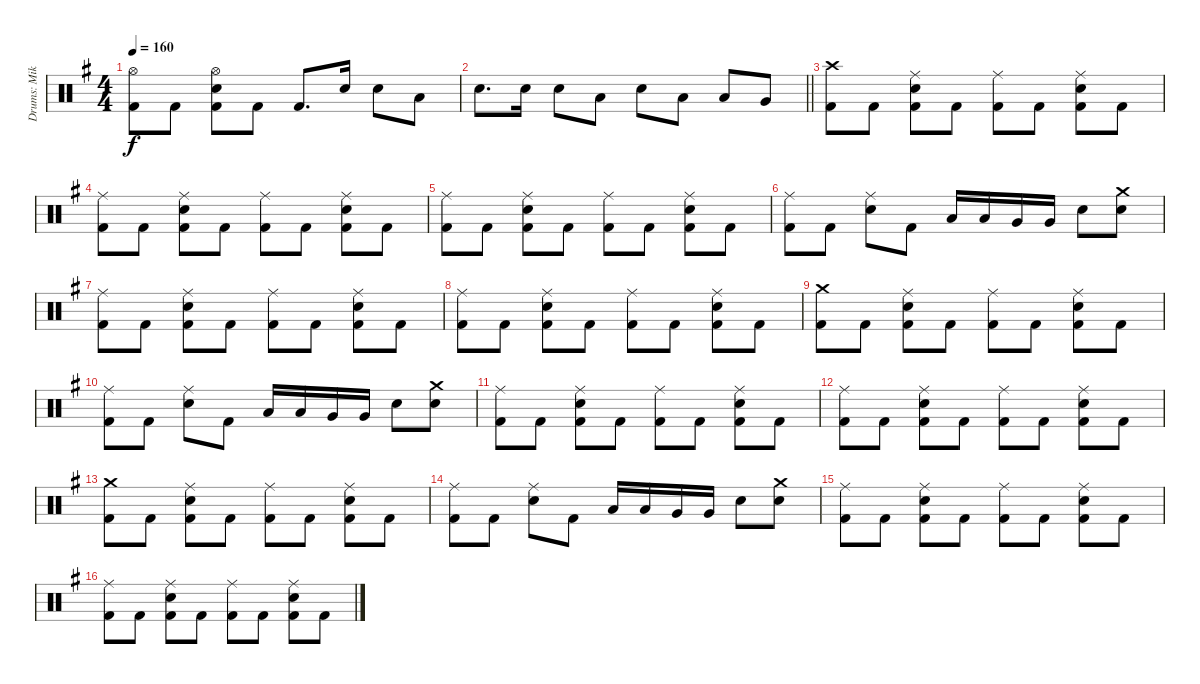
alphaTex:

\track ("Drums: Mikko Korsbäck" "Drums: Mik") {instrument percussion}
\staff {score}
\articulation defaults
\ts (4 4)
\tempo 160
\clef neutral
\ks eminor
("Hi-Hat (open)" "Kick (hit) 2").8{dy f} "Kick (hit) 2".8 ("Hi-Hat (open)" "Electric Snare (hit)" "Kick (hit) 2").8 "Kick (hit) 2".8 "Kick (hit) 2".8{d} "Electric Snare (hit)".16 "Electric Snare (hit)".8 "Low Tom (hit)".8 |
\barLineRight lightlight "Electric Snare (hit)".8{d} "Electric Snare (hit)".16 "Electric Snare (hit)".8 "Low Tom (hit)".8 "Electric Snare (hit)".8 "Low Tom (hit)".8 "Low Tom (hit)".8 "Very Low Tom (hit)".8
|
("Crash high (hit)" "Kick (hit) 2").8 "Kick (hit) 2".8 ("Ride (middle)" "Electric Snare (hit)" "Kick (hit) 2").8 "Kick (hit) 2".8 ("Ride (middle)" "Kick (hit) 2").8 "Kick (hit) 2".8 ("Ride (middle)" "Electric Snare (hit)" "Kick (hit) 2").8 "Kick (hit) 2".8 |
("Ride (middle)" "Kick (hit) 2").8 "Kick (hit) 2".8 ("Ride (middle)" "Electric Snare (hit)" "Kick (hit) 2").8 "Kick (hit) 2".8 ("Ride (middle)" "Kick (hit) 2").8 "Kick (hit) 2".8 ("Ride (middle)" "Electric Snare (hit)" "Kick (hit) 2").8 "Kick (hit) 2".8 |
("Ride (middle)" "Kick (hit) 2").8 "Kick (hit) 2".8 ("Ride (middle)" "Electric Snare (hit)" "Kick (hit) 2").8 "Kick (hit) 2".8 ("Ride (middle)" "Kick (hit) 2").8 "Kick (hit) 2".8 ("Ride (middle)" "Electric Snare (hit)" "Kick (hit) 2").8 "Kick (hit) 2".8 |
("Ride (middle)" "Kick (hit) 2").8 "Kick (hit) 2".8 ("Ride (middle)" "Electric Snare (hit)").8 "Kick (hit) 2".8 "Low Tom (hit)".16 "Low Tom (hit)".16 "Very Low Tom (hit)".16 "Very Low Tom (hit)".16 "Electric Snare (hit)".8 ("Crash medium (hit)" "Electric Snare (hit)").8 |
("Ride (middle)" "Kick (hit) 2").8 "Kick (hit) 2".8 ("Ride (middle)" "Electric Snare (hit)" "Kick (hit) 2").8 "Kick (hit) 2".8 ("Ride (middle)" "Kick (hit) 2").8 "Kick (hit) 2".8 ("Ride (middle)" "Electric Snare (hit)" "Kick (hit) 2").8 "Kick (hit) 2".8 |
("Ride (middle)" "Kick (hit) 2").8 "Kick (hit) 2".8 ("Ride (middle)" "Electric Snare (hit)" "Kick (hit) 2").8 "Kick (hit) 2".8 ("Ride (middle)" "Kick (hit) 2").8 "Kick (hit) 2".8 ("Ride (middle)" "Electric Snare (hit)" "Kick (hit) 2").8 "Kick (hit) 2".8 |
("Crash medium (hit)" "Kick (hit) 2").8 "Kick (hit) 2".8 ("Ride (middle)" "Electric Snare (hit)" "Kick (hit) 2").8 "Kick (hit) 2".8 ("Ride (middle)" "Kick (hit) 2").8 "Kick (hit) 2".8 ("Ride (middle)" "Electric Snare (hit)" "Kick (hit) 2").8 "Kick (hit) 2".8 |
("Ride (middle)" "Kick (hit) 2").8 "Kick (hit) 2".8 ("Ride (middle)" "Electric Snare (hit)").8 "Kick (hit) 2".8 "Low Tom (hit)".16 "Low Tom (hit)".16 "Very Low Tom (hit)".16 "Very Low Tom (hit)".16 "Electric Snare (hit)".8 ("Crash medium (hit)" "Electric Snare (hit)").8 |
("Ride (middle)" "Kick (hit) 2").8 "Kick (hit) 2".8 ("Ride (middle)" "Electric Snare (hit)" "Kick (hit) 2").8 "Kick (hit) 2".8 ("Ride (middle)" "Kick (hit) 2").8 "Kick (hit) 2".8 ("Ride (middle)" "Electric Snare (hit)" "Kick (hit) 2").8 "Kick (hit) 2".8 |
("Ride (middle)" "Kick (hit) 2").8 "Kick (hit) 2".8 ("Ride (middle)" "Electric Snare (hit)" "Kick (hit) 2").8 "Kick (hit) 2".8 ("Ride (middle)" "Kick (hit) 2").8 "Kick (hit) 2".8 ("Ride (middle)" "Electric Snare (hit)" "Kick (hit) 2").8 "Kick (hit) 2".8 |
("Crash medium (hit)" "Kick (hit) 2").8 "Kick (hit) 2".8 ("Ride (middle)" "Electric Snare (hit)" "Kick (hit) 2").8 "Kick (hit) 2".8 ("Ride (middle)" "Kick (hit) 2").8 "Kick (hit) 2".8 ("Ride (middle)" "Electric Snare (hit)" "Kick (hit) 2").8 "Kick (hit) 2".8 |
("Ride (middle)" "Kick (hit) 2").8 "Kick (hit) 2".8 ("Ride (middle)" "Electric Snare (hit)").8 "Kick (hit) 2".8 "Low Tom (hit)".16 "Low Tom (hit)".16 "Very Low Tom (hit)".16 "Very Low Tom (hit)".16 "Electric Snare (hit)".8 ("Crash medium (hit)" "Electric Snare (hit)").8 |
("Ride (middle)" "Kick (hit) 2").8 "Kick (hit) 2".8 ("Ride (middle)" "Electric Snare (hit)" "Kick (hit) 2").8 "Kick (hit) 2".8 ("Ride (middle)" "Kick (hit) 2").8 "Kick (hit) 2".8 ("Ride (middle)" "Electric Snare (hit)" "Kick (hit) 2").8 "Kick (hit) 2".8 |
("Ride (middle)" "Kick (hit) 2").8 "Kick (hit) 2".8 ("Ride (middle)" "Electric Snare (hit)" "Kick (hit) 2").8 "Kick (hit) 2".8 ("Ride (middle)" "Kick (hit) 2").8 "Kick (hit) 2".8 ("Ride (middle)" "Electric Snare (hit)" "Kick (hit) 2").8 "Kick (hit) 2".8
